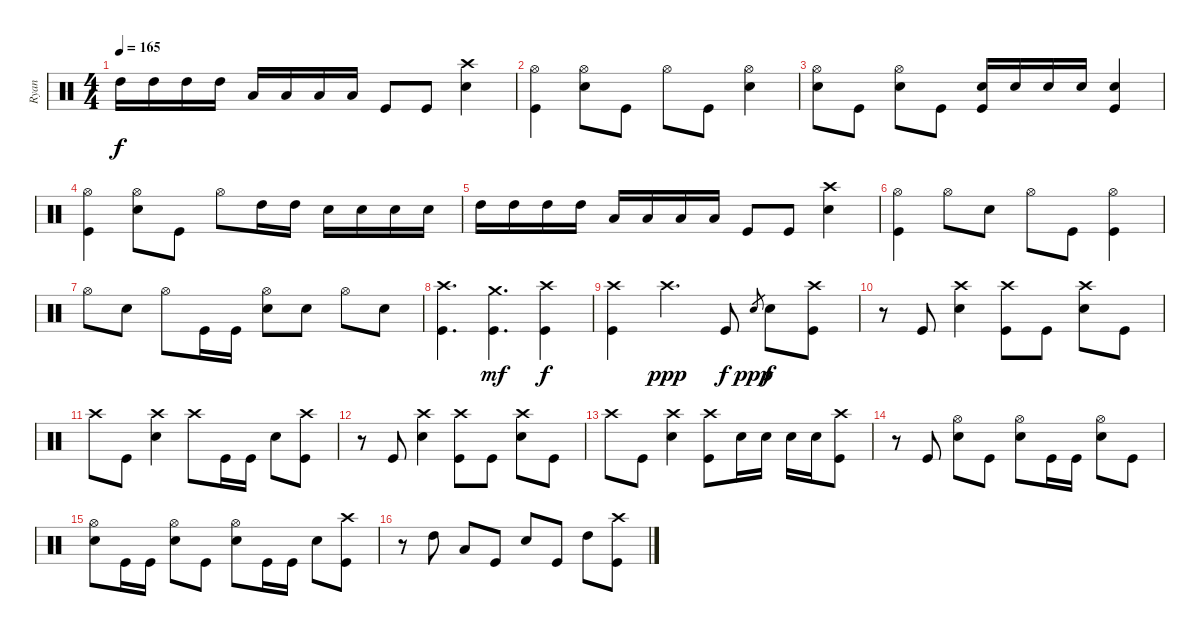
\track ("Ryan" "Ryan") {instrument percussion}
\staff {score}
\articulation defaults
\ts (4 4)
\tempo 165
\clef neutral
\ks c "High Tom (hit)".16{dy f} "High Tom (hit)".16 "High Tom (hit)".16 "High Tom (hit)".16 "Low Floor Tom (hit)".16 "Low Floor Tom (hit)".16 "Low Floor Tom (hit)".16 "Low Floor Tom (hit)".16 "Kick (hit)".8 "Kick (hit)".8
("Crash high (hit)" "Electric Snare (hit)").4 |
("Hi-Hat (open)" "Kick (hit)").4 ("Hi-Hat (open)" "Electric Snare (hit)").8 "Kick (hit)".8 "Hi-Hat (open)".8 "Kick (hit)".8 ("Hi-Hat (open)" "Electric Snare (hit)").4 |
("Hi-Hat (open)" "Electric Snare (hit)").8 "Kick (hit)".8 ("Hi-Hat (open)" "Electric Snare (hit)").8 "Kick (hit)".8 ("Electric Snare (hit)" "Kick (hit)").16 "Electric Snare (hit)".16 "Electric Snare (hit)".16 "Electric Snare (hit)".16 ("Electric Snare (hit)" "Kick (hit)").4 |
("Hi-Hat (open)" "Kick (hit)").4 ("Hi-Hat (open)" "Electric Snare (hit)").8 "Kick (hit)".8 "Hi-Hat (open)".8 "High Tom (hit)".16 "High Tom (hit)".16 "Electric Snare (hit)".16 "Electric Snare (hit)".16 "Electric Snare (hit)".16 "Electric Snare (hit)".16 |
"High Tom (hit)".16 "High Tom (hit)".16 "High Tom (hit)".16 "High Tom (hit)".16 "Low Floor Tom (hit)".16 "Low Floor Tom (hit)".16 "Low Floor Tom (hit)".16 "Low Floor Tom (hit)".16 "Kick (hit)".8 "Kick (hit)".8 ("Crash high (hit)" "Electric Snare (hit)").4 |
("Hi-Hat (open)" "Kick (hit)").4 "Hi-Hat (open)".8 "Electric Snare (hit)".8 "Hi-Hat (open)".8 "Kick (hit)".8 ("Hi-Hat (open)" "Kick (hit)").4 |
"Hi-Hat (open)".8 "Electric Snare (hit)".8 "Hi-Hat (open)".8 "Kick (hit)".16 "Kick (hit)".16 ("Hi-Hat (open)" "Electric Snare (hit)").8 "Electric Snare (hit)".8 "Hi-Hat (open)".8 "Electric Snare (hit)".8 |
("Crash high (hit)" "Kick (hit)").4{d} ("Crash medium (hit)" "Kick (hit)").4{d dy mf} ("Crash high (hit)" "Kick (hit)").4{dy f} |
("Crash high (hit)" "Kick (hit)").4 "Crash high (hit)".4{d dy ppp} "Kick (hit)".8{dy f} "Electric Snare (hit)".8{gr dy ppp} "Electric Snare (hit)".8{dy f} ("Crash high (hit)" "Kick (hit)").8 |
r.8 "Kick (hit)".8 ("Crash high (hit)" "Electric Snare (hit)").4 ("Crash high (hit)" "Kick (hit)").8 "Kick (hit)".8 ("Crash high (hit)" "Electric Snare (hit)").8 "Kick (hit)".8 |
"Crash high (hit)".8 "Kick (hit)".8 ("Crash high (hit)" "Electric Snare (hit)").4 "Crash high (hit)".8 "Kick (hit)".16 "Kick (hit)".16 "Electric Snare (hit)".8 ("Crash high (hit)" "Kick (hit)").8 |
r.8 "Kick (hit)".8 ("Crash high (hit)" "Electric Snare (hit)").4 ("Crash high (hit)" "Kick (hit)").8 "Kick (hit)".8 ("Crash high (hit)" "Electric Snare (hit)").8 "Kick (hit)".8 |
"Crash high (hit)".8 "Kick (hit)".8 ("Crash high (hit)" "Electric Snare (hit)").4 ("Crash high (hit)" "Kick (hit)").8 "Electric Snare (hit)".16 "Electric Snare (hit)".16 "Electric Snare (hit)".16 "Electric Snare (hit)".16 ("Crash high (hit)" "Kick (hit)").8 |
r.8 "Kick (hit)".8 ("Hi-Hat (open)" "Electric Snare (hit)").8 "Kick (hit)".8 ("Hi-Hat (open)" "Electric Snare (hit)").8 "Kick (hit)".16 "Kick (hit)".16 ("Hi-Hat (open)" "Electric Snare (hit)").8 "Kick (hit)".8 |
("Hi-Hat (open)" "Electric Snare (hit)").8 "Kick (hit)".16 "Kick (hit)".16 ("Hi-Hat (open)" "Electric Snare (hit)").8 "Kick (hit)".8 ("Hi-Hat (open)" "Electric Snare (hit)").8 "Kick (hit)".16 "Kick (hit)".16 "Electric Snare (hit)".8 ("Crash high (hit)" "Kick (hit)").8 |
r.8 "High Tom (hit)".8 "Low Floor Tom (hit)".8 "Kick (hit)".8 "Electric Snare (hit)".8 "Kick (hit)".8 "High Tom (hit)".8 ("Crash high (hit)" "Kick (hit)").8
